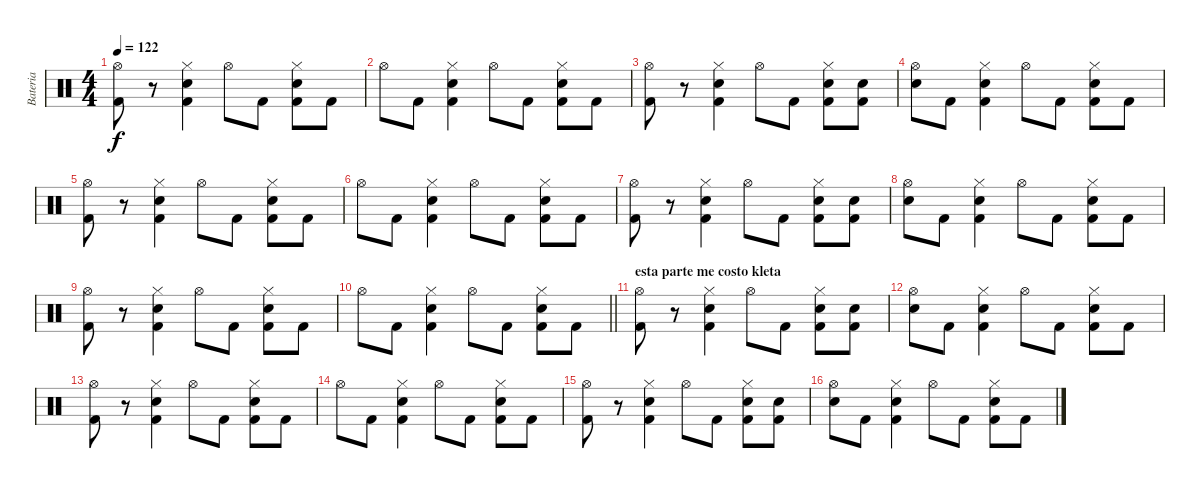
\track ("Bateria" "Bateria") {instrument percussion}
\staff {score}
\articulation defaults
\ts (4 4)
\tempo 122
\clef neutral
\ks c
("Kick (hit) 2" "Hi-Hat (open)").8{dy f} r.8 ("Kick (hit) 2" "Snare (hit) 2" "Hi-Hat (closed)").4 "Hi-Hat (open)".8 "Kick (hit) 2".8 ("Kick (hit) 2" "Snare (hit) 2" "Hi-Hat (closed)").8 "Kick (hit) 2".8 |
"Hi-Hat (open)".8 "Kick (hit) 2".8 ("Kick (hit) 2" "Snare (hit) 2" "Hi-Hat (closed)").4 "Hi-Hat (open)".8 "Kick (hit) 2".8 ("Kick (hit) 2" "Snare (hit) 2" "Hi-Hat (closed)").8 "Kick (hit) 2".8 |
("Kick (hit) 2" "Hi-Hat (open)").8 r.8 ("Kick (hit) 2" "Snare (hit) 2" "Hi-Hat (closed)").4 "Hi-Hat (open)".8 "Kick (hit) 2".8 ("Kick (hit) 2" "Snare (hit) 2" "Hi-Hat (closed)").8 ("Kick (hit) 2" "Snare (hit)").8 |
("Hi-Hat (open)" "Snare (hit)").8 "Kick (hit) 2".8 ("Kick (hit) 2" "Snare (hit) 2" "Hi-Hat (closed)").4 "Hi-Hat (open)".8 "Kick (hit) 2".8 ("Kick (hit) 2" "Snare (hit) 2" "Hi-Hat (closed)").8 "Kick (hit) 2".8 |
("Kick (hit) 2" "Hi-Hat (open)").8 r.8 ("Kick (hit) 2" "Snare (hit) 2" "Hi-Hat (closed)").4 "Hi-Hat (open)".8 "Kick (hit) 2".8 ("Kick (hit) 2" "Snare (hit) 2" "Hi-Hat (closed)").8 "Kick (hit) 2".8 |
"Hi-Hat (open)".8 "Kick (hit) 2".8 ("Kick (hit) 2" "Snare (hit) 2" "Hi-Hat (closed)").4 "Hi-Hat (open)".8 "Kick (hit) 2".8 ("Kick (hit) 2" "Snare (hit) 2" "Hi-Hat (closed)").8 "Kick (hit) 2".8 |
("Kick (hit) 2" "Hi-Hat (open)").8 r.8 ("Kick (hit) 2" "Snare (hit) 2" "Hi-Hat (closed)").4 "Hi-Hat (open)".8 "Kick (hit) 2".8 ("Kick (hit) 2" "Snare (hit) 2" "Hi-Hat (closed)").8 ("Kick (hit) 2" "Snare (hit)").8 |
("Hi-Hat (open)" "Snare (hit)").8 "Kick (hit) 2".8 ("Kick (hit) 2" "Snare (hit) 2" "Hi-Hat (closed)").4 "Hi-Hat (open)".8 "Kick (hit) 2".8 ("Kick (hit) 2" "Snare (hit) 2" "Hi-Hat (closed)").8 "Kick (hit) 2".8 |
("Kick (hit) 2" "Hi-Hat (open)").8 r.8 ("Kick (hit) 2" "Snare (hit) 2" "Hi-Hat (closed)").4 "Hi-Hat (open)".8 "Kick (hit) 2".8 ("Kick (hit) 2" "Snare (hit) 2" "Hi-Hat (closed)").8 "Kick (hit) 2".8 |
\barLineRight lightlight "Hi-Hat (open)".8 "Kick (hit) 2".8
("Kick (hit) 2" "Snare (hit) 2" "Hi-Hat (closed)").4 "Hi-Hat (open)".8 "Kick (hit) 2".8 ("Kick (hit) 2" "Snare (hit) 2" "Hi-Hat (closed)").8 "Kick (hit) 2".8 |
\section ("" "esta parte me costo kleta")
("Kick (hit) 2" "Hi-Hat (open)").8 r.8 ("Kick (hit) 2" "Snare (hit) 2" "Hi-Hat (closed)").4 "Hi-Hat (open)".8 "Kick (hit) 2".8 ("Kick (hit) 2" "Snare (hit) 2" "Hi-Hat (closed)").8 ("Kick (hit) 2" "Snare (hit)").8 |
("Hi-Hat (open)" "Snare (hit)").8 "Kick (hit) 2".8 ("Kick (hit) 2" "Snare (hit) 2" "Hi-Hat (closed)").4 "Hi-Hat (open)".8 "Kick (hit) 2".8 ("Kick (hit) 2" "Snare (hit) 2" "Hi-Hat (closed)").8 "Kick (hit) 2".8 |
("Kick (hit) 2" "Hi-Hat (open)").8 r.8 ("Kick (hit) 2" "Snare (hit) 2" "Hi-Hat (closed)").4 "Hi-Hat (open)".8 "Kick (hit) 2".8 ("Kick (hit) 2" "Snare (hit) 2" "Hi-Hat (closed)").8 "Kick (hit) 2".8 |
"Hi-Hat (open)".8 "Kick (hit) 2".8 ("Kick (hit) 2" "Snare (hit) 2" "Hi-Hat (closed)").4 "Hi-Hat (open)".8 "Kick (hit) 2".8 ("Kick (hit) 2" "Snare (hit) 2" "Hi-Hat (closed)").8 "Kick (hit) 2".8 |
("Kick (hit) 2" "Hi-Hat (open)").8 r.8 ("Kick (hit) 2" "Snare (hit) 2" "Hi-Hat (closed)").4 "Hi-Hat (open)".8 "Kick (hit) 2".8 ("Kick (hit) 2" "Snare (hit) 2" "Hi-Hat (closed)").8 ("Kick (hit) 2" "Snare (hit)").8 |
("Hi-Hat (open)" "Snare (hit)").8 "Kick (hit) 2".8 ("Kick (hit) 2" "Snare (hit) 2" "Hi-Hat (closed)").4 "Hi-Hat (open)".8 "Kick (hit) 2".8 ("Kick (hit) 2" "Snare (hit) 2" "Hi-Hat (closed)").8 "Kick (hit) 2".8
